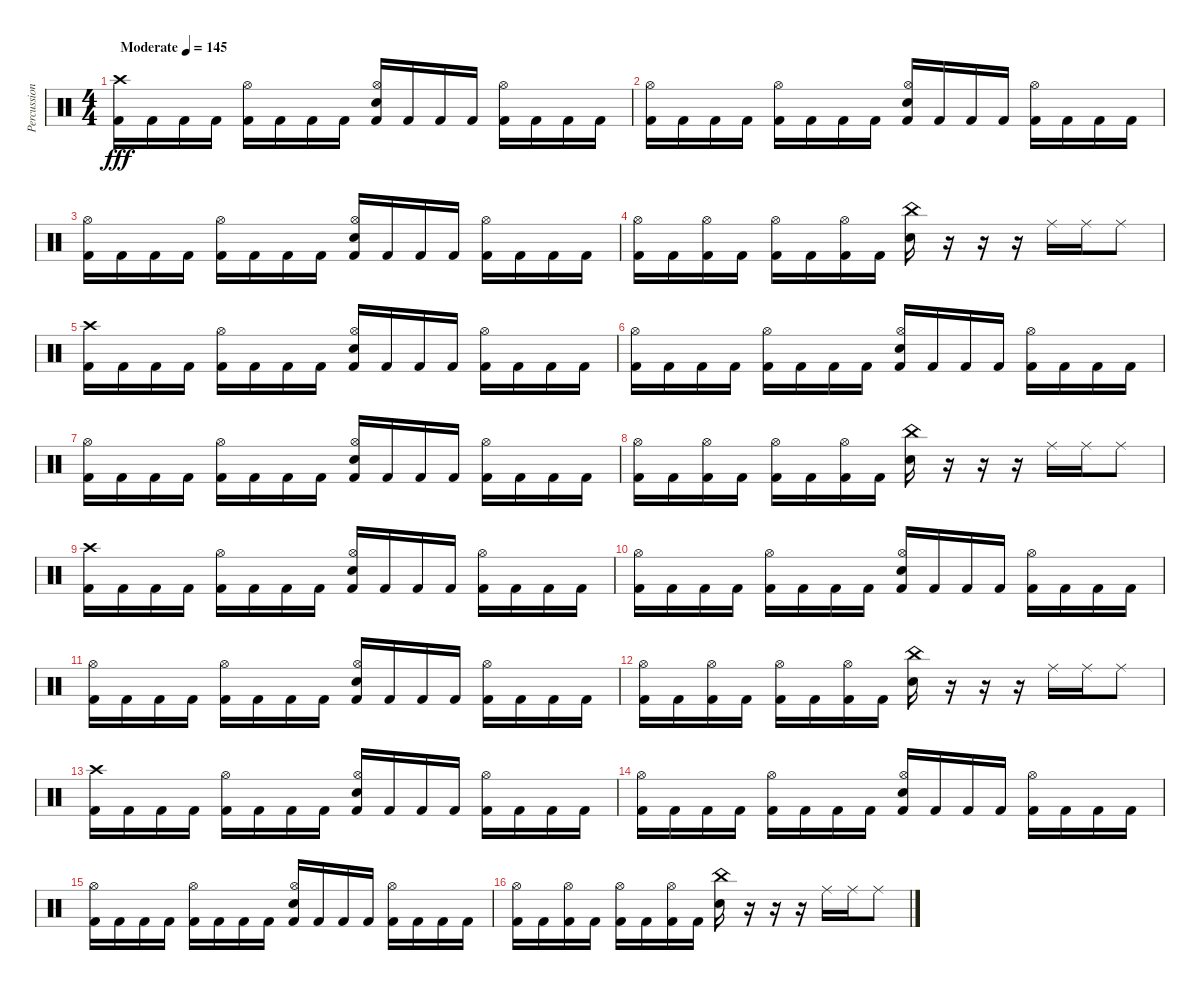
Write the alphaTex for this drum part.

\track ("Percussion" "Percussion") {instrument percussion}
\staff {score}
\articulation defaults
\ts (4 4)
\tempo (145 "Moderate")
\clef neutral
\ks c
("Crash high (hit)" "Kick (hit) 2").16{dy fff} "Kick (hit) 2".16 "Kick (hit) 2".16 "Kick (hit) 2".16 ("Hi-Hat (open)" "Kick (hit) 2").16 "Kick (hit) 2".16 "Kick (hit) 2".16 "Kick (hit) 2".16 ("Hi-Hat (open)" "Snare (hit) 2" "Kick (hit) 2").16 "Kick (hit) 2".16 "Kick (hit) 2".16 "Kick (hit) 2".16 ("Hi-Hat (open)" "Kick (hit) 2").16 "Kick (hit) 2".16 "Kick (hit) 2".16 "Kick (hit) 2".16 |
("Hi-Hat (open)" "Kick (hit) 2").16 "Kick (hit) 2".16 "Kick (hit) 2".16 "Kick (hit) 2".16 ("Hi-Hat (open)" "Kick (hit) 2").16 "Kick (hit) 2".16 "Kick (hit) 2".16 "Kick (hit) 2".16 ("Hi-Hat (open)" "Snare (hit) 2" "Kick (hit) 2").16 "Kick (hit) 2".16 "Kick (hit) 2".16 "Kick (hit) 2".16 ("Hi-Hat (open)" "Kick (hit) 2").16 "Kick (hit) 2".16 "Kick (hit) 2".16 "Kick (hit) 2".16 |
("Hi-Hat (open)" "Kick (hit) 2").16 "Kick (hit) 2".16 "Kick (hit) 2".16 "Kick (hit) 2".16 ("Hi-Hat (open)" "Kick (hit) 2").16 "Kick (hit) 2".16 "Kick (hit) 2".16 "Kick (hit) 2".16 ("Hi-Hat (open)" "Snare (hit) 2" "Kick (hit) 2").16 "Kick (hit) 2".16 "Kick (hit) 2".16 "Kick (hit) 2".16 ("Hi-Hat (open)" "Kick (hit) 2").16 "Kick (hit) 2".16 "Kick (hit) 2".16 "Kick (hit) 2".16 |
("Hi-Hat (open)" "Kick (hit) 2").16 "Kick (hit) 2".16 ("Hi-Hat (open)" "Kick (hit) 2").16 "Kick (hit) 2".16 ("Hi-Hat (open)" "Kick (hit) 2").16 "Kick (hit) 2".16 ("Hi-Hat (open)" "Kick (hit) 2").16 "Kick (hit) 2".16 ("China (hit)" "Snare (hit) 2").16 r.16 r.16 r.16 "Ride (middle)".16 "Ride (middle)".16 "Ride (middle)".8 |
("Crash high (hit)" "Kick (hit) 2").16 "Kick (hit) 2".16 "Kick (hit) 2".16 "Kick (hit) 2".16 ("Hi-Hat (open)" "Kick (hit) 2").16 "Kick (hit) 2".16 "Kick (hit) 2".16 "Kick (hit) 2".16 ("Hi-Hat (open)" "Snare (hit) 2" "Kick (hit) 2").16 "Kick (hit) 2".16 "Kick (hit) 2".16 "Kick (hit) 2".16 ("Hi-Hat (open)" "Kick (hit) 2").16 "Kick (hit) 2".16 "Kick (hit) 2".16 "Kick (hit) 2".16 |
("Hi-Hat (open)" "Kick (hit) 2").16 "Kick (hit) 2".16 "Kick (hit) 2".16 "Kick (hit) 2".16 ("Hi-Hat (open)" "Kick (hit) 2").16 "Kick (hit) 2".16 "Kick (hit) 2".16 "Kick (hit) 2".16 ("Hi-Hat (open)" "Snare (hit) 2" "Kick (hit) 2").16 "Kick (hit) 2".16 "Kick (hit) 2".16 "Kick (hit) 2".16 ("Hi-Hat (open)" "Kick (hit) 2").16 "Kick (hit) 2".16 "Kick (hit) 2".16 "Kick (hit) 2".16 |
("Hi-Hat (open)" "Kick (hit) 2").16 "Kick (hit) 2".16 "Kick (hit) 2".16 "Kick (hit) 2".16 ("Hi-Hat (open)" "Kick (hit) 2").16 "Kick (hit) 2".16 "Kick (hit) 2".16 "Kick (hit) 2".16 ("Hi-Hat (open)" "Snare (hit) 2" "Kick (hit) 2").16 "Kick (hit) 2".16 "Kick (hit) 2".16 "Kick (hit) 2".16 ("Hi-Hat (open)" "Kick (hit) 2").16 "Kick (hit) 2".16 "Kick (hit) 2".16 "Kick (hit) 2".16 |
("Hi-Hat (open)" "Kick (hit) 2").16 "Kick (hit) 2".16 ("Hi-Hat (open)" "Kick (hit) 2").16 "Kick (hit) 2".16 ("Hi-Hat (open)" "Kick (hit) 2").16 "Kick (hit) 2".16 ("Hi-Hat (open)" "Kick (hit) 2").16 "Kick (hit) 2".16 ("China (hit)" "Snare (hit) 2").16 r.16 r.16 r.16 "Ride (middle)".16 "Ride (middle)".16 "Ride (middle)".8 |
("Crash high (hit)" "Kick (hit) 2").16 "Kick (hit) 2".16 "Kick (hit) 2".16 "Kick (hit) 2".16 ("Hi-Hat (open)" "Kick (hit) 2").16 "Kick (hit) 2".16 "Kick (hit) 2".16 "Kick (hit) 2".16 ("Hi-Hat (open)" "Snare (hit) 2" "Kick (hit) 2").16 "Kick (hit) 2".16 "Kick (hit) 2".16 "Kick (hit) 2".16 ("Hi-Hat (open)" "Kick (hit) 2").16 "Kick (hit) 2".16 "Kick (hit) 2".16 "Kick (hit) 2".16 |
("Hi-Hat (open)" "Kick (hit) 2").16 "Kick (hit) 2".16 "Kick (hit) 2".16 "Kick (hit) 2".16 ("Hi-Hat (open)" "Kick (hit) 2").16 "Kick (hit) 2".16 "Kick (hit) 2".16 "Kick (hit) 2".16 ("Hi-Hat (open)" "Snare (hit) 2" "Kick (hit) 2").16 "Kick (hit) 2".16 "Kick (hit) 2".16 "Kick (hit) 2".16 ("Hi-Hat (open)" "Kick (hit) 2").16 "Kick (hit) 2".16 "Kick (hit) 2".16 "Kick (hit) 2".16 |
("Hi-Hat (open)" "Kick (hit) 2").16 "Kick (hit) 2".16 "Kick (hit) 2".16 "Kick (hit) 2".16 ("Hi-Hat (open)" "Kick (hit) 2").16 "Kick (hit) 2".16 "Kick (hit) 2".16 "Kick (hit) 2".16 ("Hi-Hat (open)" "Snare (hit) 2" "Kick (hit) 2").16 "Kick (hit) 2".16 "Kick (hit) 2".16 "Kick (hit) 2".16 ("Hi-Hat (open)" "Kick (hit) 2").16 "Kick (hit) 2".16 "Kick (hit) 2".16 "Kick (hit) 2".16 |
("Hi-Hat (open)" "Kick (hit) 2").16 "Kick (hit) 2".16 ("Hi-Hat (open)" "Kick (hit) 2").16 "Kick (hit) 2".16 ("Hi-Hat (open)" "Kick (hit) 2").16 "Kick (hit) 2".16 ("Hi-Hat (open)" "Kick (hit) 2").16 "Kick (hit) 2".16 ("China (hit)" "Snare (hit) 2").16 r.16 r.16 r.16 "Ride (middle)".16 "Ride (middle)".16 "Ride (middle)".8 |
("Crash high (hit)" "Kick (hit) 2").16 "Kick (hit) 2".16 "Kick (hit) 2".16 "Kick (hit) 2".16 ("Hi-Hat (open)" "Kick (hit) 2").16 "Kick (hit) 2".16 "Kick (hit) 2".16 "Kick (hit) 2".16 ("Hi-Hat (open)" "Snare (hit) 2" "Kick (hit) 2").16 "Kick (hit) 2".16 "Kick (hit) 2".16 "Kick (hit) 2".16 ("Hi-Hat (open)" "Kick (hit) 2").16 "Kick (hit) 2".16 "Kick (hit) 2".16 "Kick (hit) 2".16 |
("Hi-Hat (open)" "Kick (hit) 2").16 "Kick (hit) 2".16 "Kick (hit) 2".16 "Kick (hit) 2".16 ("Hi-Hat (open)" "Kick (hit) 2").16 "Kick (hit) 2".16 "Kick (hit) 2".16 "Kick (hit) 2".16 ("Hi-Hat (open)" "Snare (hit) 2" "Kick (hit) 2").16 "Kick (hit) 2".16 "Kick (hit) 2".16 "Kick (hit) 2".16 ("Hi-Hat (open)" "Kick (hit) 2").16 "Kick (hit) 2".16 "Kick (hit) 2".16 "Kick (hit) 2".16 |
("Hi-Hat (open)" "Kick (hit) 2").16 "Kick (hit) 2".16 "Kick (hit) 2".16 "Kick (hit) 2".16 ("Hi-Hat (open)" "Kick (hit) 2").16 "Kick (hit) 2".16 "Kick (hit) 2".16 "Kick (hit) 2".16 ("Hi-Hat (open)" "Snare (hit) 2" "Kick (hit) 2").16 "Kick (hit) 2".16 "Kick (hit) 2".16 "Kick (hit) 2".16 ("Hi-Hat (open)" "Kick (hit) 2").16 "Kick (hit) 2".16 "Kick (hit) 2".16 "Kick (hit) 2".16 |
("Hi-Hat (open)" "Kick (hit) 2").16 "Kick (hit) 2".16 ("Hi-Hat (open)" "Kick (hit) 2").16 "Kick (hit) 2".16 ("Hi-Hat (open)" "Kick (hit) 2").16 "Kick (hit) 2".16 ("Hi-Hat (open)" "Kick (hit) 2").16 "Kick (hit) 2".16 ("China (hit)" "Snare (hit) 2").16 r.16 r.16 r.16 "Ride (middle)".16 "Ride (middle)".16 "Ride (middle)".8
